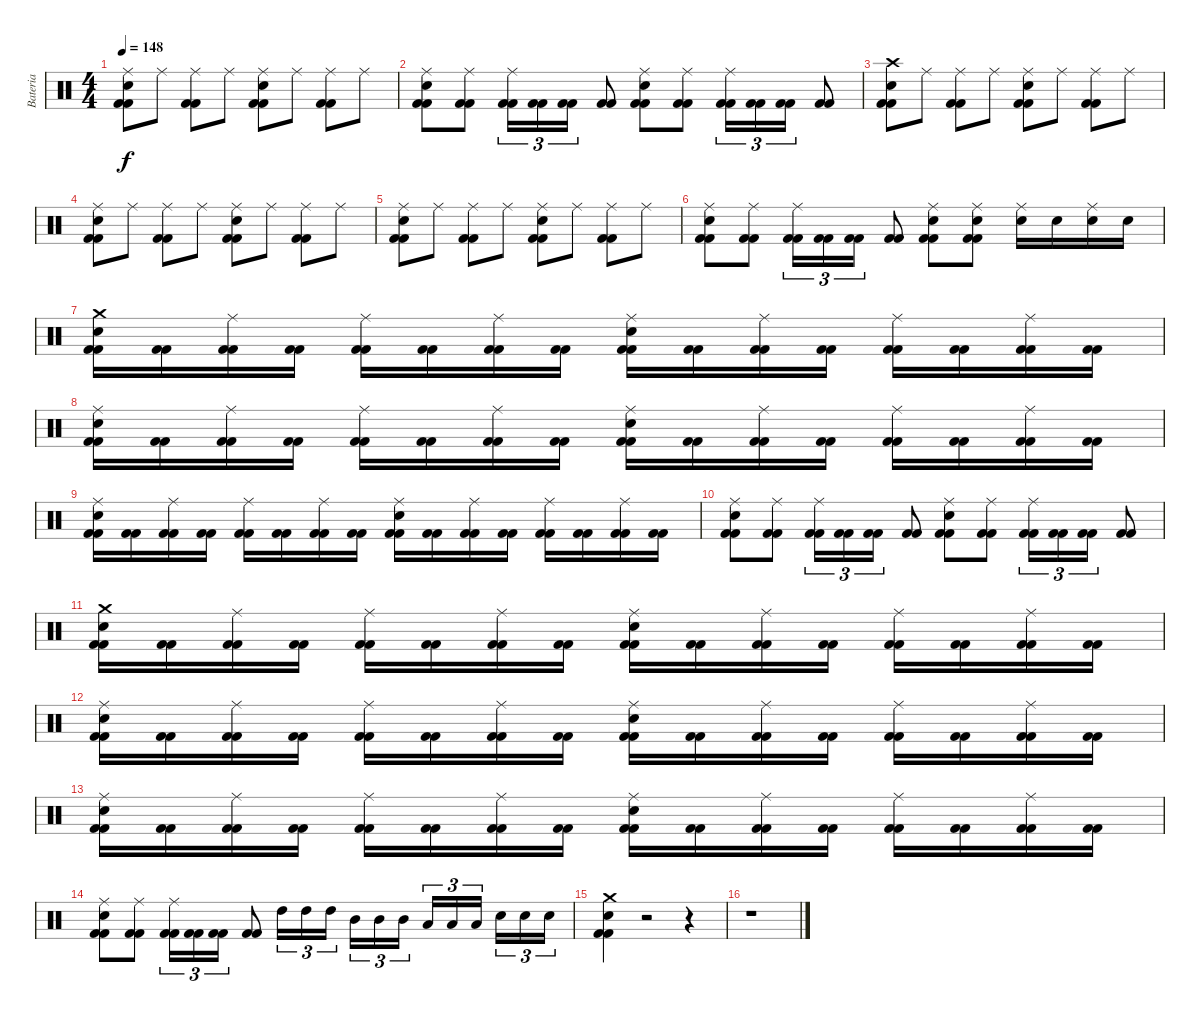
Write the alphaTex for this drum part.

\track ("Bateria" "Bateria") {instrument percussion}
\staff {score}
\articulation defaults
\ts (4 4)
\tempo 148
\clef neutral
\ks c
("Kick (hit) 2" "Kick (hit) 2" "Snare (hit) 2" "Ride (middle)").8{dy f} "Ride (middle)".8 ("Kick (hit) 2" "Kick (hit) 2" "Ride (middle)").8 "Ride (middle)".8 ("Kick (hit) 2" "Kick (hit) 2" "Snare (hit) 2" "Ride (middle)").8 "Ride (middle)".8 ("Kick (hit) 2" "Kick (hit) 2" "Ride (middle)").8 "Ride (middle)".8 |
("Kick (hit) 2" "Kick (hit) 2" "Snare (hit) 2" "Ride (middle)").8 ("Kick (hit) 2" "Kick (hit) 2" "Ride (middle)").8 ("Kick (hit) 2" "Kick (hit) 2" "Ride (middle)").16{tu (3 2)} ("Kick (hit) 2" "Kick (hit) 2").16{tu (3 2)} ("Kick (hit) 2" "Kick (hit) 2").16{tu (3 2)} ("Kick (hit) 2" "Kick (hit) 2").8 ("Kick (hit) 2" "Kick (hit) 2" "Snare (hit) 2" "Ride (middle)").8 ("Kick (hit) 2" "Kick (hit) 2" "Ride (middle)").8 ("Kick (hit) 2" "Kick (hit) 2" "Ride (middle)").16{tu (3 2)} ("Kick (hit) 2" "Kick (hit) 2").16{tu (3 2)} ("Kick (hit) 2" "Kick (hit) 2").16{tu (3 2)} ("Kick (hit) 2" "Kick (hit) 2").8 |
("Kick (hit) 2" "Kick (hit) 2" "Snare (hit) 2" "Crash high (hit)").8 "Ride (middle)".8 ("Kick (hit) 2" "Kick (hit) 2" "Ride (middle)").8 "Ride (middle)".8 ("Kick (hit) 2" "Kick (hit) 2" "Snare (hit) 2" "Ride (middle)").8 "Ride (middle)".8 ("Kick (hit) 2" "Kick (hit) 2" "Ride (middle)").8 "Ride (middle)".8 |
("Kick (hit) 2" "Kick (hit) 2" "Snare (hit) 2" "Ride (middle)").8 "Ride (middle)".8 ("Kick (hit) 2" "Kick (hit) 2" "Ride (middle)").8 "Ride (middle)".8 ("Kick (hit) 2" "Kick (hit) 2" "Snare (hit) 2" "Ride (middle)").8 "Ride (middle)".8 ("Kick (hit) 2" "Kick (hit) 2" "Ride (middle)").8 "Ride (middle)".8 |
("Kick (hit) 2" "Kick (hit) 2" "Snare (hit) 2" "Ride (middle)").8 "Ride (middle)".8 ("Kick (hit) 2" "Kick (hit) 2" "Ride (middle)").8 "Ride (middle)".8 ("Kick (hit) 2" "Kick (hit) 2" "Snare (hit) 2" "Ride (middle)").8 "Ride (middle)".8 ("Kick (hit) 2" "Kick (hit) 2" "Ride (middle)").8 "Ride (middle)".8 |
("Kick (hit) 2" "Kick (hit) 2" "Snare (hit) 2" "Ride (middle)").8 ("Kick (hit) 2" "Kick (hit) 2" "Ride (middle)").8 ("Kick (hit) 2" "Kick (hit) 2" "Ride (middle)").16{tu (3 2)} ("Kick (hit) 2" "Kick (hit) 2").16{tu (3 2)} ("Kick (hit) 2" "Kick (hit) 2").16{tu (3 2)} ("Kick (hit) 2" "Kick (hit) 2").8 ("Kick (hit) 2" "Kick (hit) 2" "Snare (hit) 2" "Ride (middle)").8 ("Kick (hit) 2" "Kick (hit) 2" "Snare (hit) 2" "Ride (middle)").8 ("Snare (hit) 2" "Ride (middle)").16 "Snare (hit) 2".16 ("Snare (hit) 2" "Ride (middle)").16 "Snare (hit) 2".16 |
("Kick (hit) 2" "Kick (hit) 2" "Snare (hit) 2" "Crash medium (hit)").16 ("Kick (hit) 2" "Kick (hit) 2").16 ("Kick (hit) 2" "Kick (hit) 2" "Ride (middle)").16 ("Kick (hit) 2" "Kick (hit) 2").16 ("Kick (hit) 2" "Kick (hit) 2" "Ride (middle)").16 ("Kick (hit) 2" "Kick (hit) 2").16 ("Kick (hit) 2" "Kick (hit) 2" "Ride (middle)").16 ("Kick (hit) 2" "Kick (hit) 2").16 ("Kick (hit) 2" "Kick (hit) 2" "Snare (hit) 2" "Ride (middle)").16 ("Kick (hit) 2" "Kick (hit) 2").16 ("Kick (hit) 2" "Kick (hit) 2" "Ride (middle)").16 ("Kick (hit) 2" "Kick (hit) 2").16 ("Kick (hit) 2" "Kick (hit) 2" "Ride (middle)").16 ("Kick (hit) 2" "Kick (hit) 2").16 ("Kick (hit) 2" "Kick (hit) 2" "Ride (middle)").16 ("Kick (hit) 2" "Kick (hit) 2").16 |
("Kick (hit) 2" "Kick (hit) 2" "Snare (hit) 2" "Ride (middle)").16 ("Kick (hit) 2" "Kick (hit) 2").16 ("Kick (hit) 2" "Kick (hit) 2" "Ride (middle)").16 ("Kick (hit) 2" "Kick (hit) 2").16 ("Kick (hit) 2" "Kick (hit) 2" "Ride (middle)").16 ("Kick (hit) 2" "Kick (hit) 2").16 ("Kick (hit) 2" "Kick (hit) 2" "Ride (middle)").16 ("Kick (hit) 2" "Kick (hit) 2").16 ("Kick (hit) 2" "Kick (hit) 2" "Snare (hit) 2" "Ride (middle)").16 ("Kick (hit) 2" "Kick (hit) 2").16 ("Kick (hit) 2" "Kick (hit) 2" "Ride (middle)").16 ("Kick (hit) 2" "Kick (hit) 2").16 ("Kick (hit) 2" "Kick (hit) 2" "Ride (middle)").16 ("Kick (hit) 2" "Kick (hit) 2").16 ("Kick (hit) 2" "Kick (hit) 2" "Ride (middle)").16 ("Kick (hit) 2" "Kick (hit) 2").16 |
("Kick (hit) 2" "Kick (hit) 2" "Snare (hit) 2" "Ride (middle)").16 ("Kick (hit) 2" "Kick (hit) 2").16 ("Kick (hit) 2" "Kick (hit) 2" "Ride (middle)").16 ("Kick (hit) 2" "Kick (hit) 2").16 ("Kick (hit) 2" "Kick (hit) 2" "Ride (middle)").16 ("Kick (hit) 2" "Kick (hit) 2").16 ("Kick (hit) 2" "Kick (hit) 2" "Ride (middle)").16 ("Kick (hit) 2" "Kick (hit) 2").16 ("Kick (hit) 2" "Kick (hit) 2" "Snare (hit) 2" "Ride (middle)").16 ("Kick (hit) 2" "Kick (hit) 2").16 ("Kick (hit) 2" "Kick (hit) 2" "Ride (middle)").16 ("Kick (hit) 2" "Kick (hit) 2").16 ("Kick (hit) 2" "Kick (hit) 2" "Ride (middle)").16 ("Kick (hit) 2" "Kick (hit) 2").16 ("Kick (hit) 2" "Kick (hit) 2" "Ride (middle)").16 ("Kick (hit) 2" "Kick (hit) 2").16 |
("Kick (hit) 2" "Kick (hit) 2" "Snare (hit) 2" "Ride (middle)").8 ("Kick (hit) 2" "Kick (hit) 2" "Ride (middle)").8 ("Kick (hit) 2" "Kick (hit) 2" "Ride (middle)").16{tu (3 2)} ("Kick (hit) 2" "Kick (hit) 2").16{tu (3 2)} ("Kick (hit) 2" "Kick (hit) 2").16{tu (3 2)} ("Kick (hit) 2" "Kick (hit) 2").8 ("Kick (hit) 2" "Kick (hit) 2" "Snare (hit) 2" "Ride (middle)").8 ("Kick (hit) 2" "Kick (hit) 2" "Ride (middle)").8 ("Kick (hit) 2" "Kick (hit) 2" "Ride (middle)").16{tu (3 2)} ("Kick (hit) 2" "Kick (hit) 2").16{tu (3 2)} ("Kick (hit) 2" "Kick (hit) 2").16{tu (3 2)} ("Kick (hit) 2" "Kick (hit) 2").8 |
("Kick (hit) 2" "Kick (hit) 2" "Snare (hit) 2" "Crash medium (hit)").16 ("Kick (hit) 2" "Kick (hit) 2").16 ("Kick (hit) 2" "Kick (hit) 2" "Ride (middle)").16 ("Kick (hit) 2" "Kick (hit) 2").16 ("Kick (hit) 2" "Kick (hit) 2" "Ride (middle)").16 ("Kick (hit) 2" "Kick (hit) 2").16 ("Kick (hit) 2" "Kick (hit) 2" "Ride (middle)").16 ("Kick (hit) 2" "Kick (hit) 2").16 ("Kick (hit) 2" "Kick (hit) 2" "Snare (hit) 2" "Ride (middle)").16 ("Kick (hit) 2" "Kick (hit) 2").16 ("Kick (hit) 2" "Kick (hit) 2" "Ride (middle)").16 ("Kick (hit) 2" "Kick (hit) 2").16 ("Kick (hit) 2" "Kick (hit) 2" "Ride (middle)").16 ("Kick (hit) 2" "Kick (hit) 2").16 ("Kick (hit) 2" "Kick (hit) 2" "Ride (middle)").16 ("Kick (hit) 2" "Kick (hit) 2").16 |
("Kick (hit) 2" "Kick (hit) 2" "Snare (hit) 2" "Ride (middle)").16 ("Kick (hit) 2" "Kick (hit) 2").16 ("Kick (hit) 2" "Kick (hit) 2" "Ride (middle)").16 ("Kick (hit) 2" "Kick (hit) 2").16 ("Kick (hit) 2" "Kick (hit) 2" "Ride (middle)").16 ("Kick (hit) 2" "Kick (hit) 2").16 ("Kick (hit) 2" "Kick (hit) 2" "Ride (middle)").16 ("Kick (hit) 2" "Kick (hit) 2").16 ("Kick (hit) 2" "Kick (hit) 2" "Snare (hit) 2" "Ride (middle)").16 ("Kick (hit) 2" "Kick (hit) 2").16 ("Kick (hit) 2" "Kick (hit) 2" "Ride (middle)").16 ("Kick (hit) 2" "Kick (hit) 2").16 ("Kick (hit) 2" "Kick (hit) 2" "Ride (middle)").16 ("Kick (hit) 2" "Kick (hit) 2").16 ("Kick (hit) 2" "Kick (hit) 2" "Ride (middle)").16 ("Kick (hit) 2" "Kick (hit) 2").16 |
("Kick (hit) 2" "Kick (hit) 2" "Snare (hit) 2" "Ride (middle)").16 ("Kick (hit) 2" "Kick (hit) 2").16 ("Kick (hit) 2" "Kick (hit) 2" "Ride (middle)").16 ("Kick (hit) 2" "Kick (hit) 2").16 ("Kick (hit) 2" "Kick (hit) 2" "Ride (middle)").16 ("Kick (hit) 2" "Kick (hit) 2").16 ("Kick (hit) 2" "Kick (hit) 2" "Ride (middle)").16 ("Kick (hit) 2" "Kick (hit) 2").16 ("Kick (hit) 2" "Kick (hit) 2" "Snare (hit) 2" "Ride (middle)").16 ("Kick (hit) 2" "Kick (hit) 2").16 ("Kick (hit) 2" "Kick (hit) 2" "Ride (middle)").16 ("Kick (hit) 2" "Kick (hit) 2").16 ("Kick (hit) 2" "Kick (hit) 2" "Ride (middle)").16 ("Kick (hit) 2" "Kick (hit) 2").16 ("Kick (hit) 2" "Kick (hit) 2" "Ride (middle)").16 ("Kick (hit) 2" "Kick (hit) 2").16 |
("Kick (hit) 2" "Kick (hit) 2" "Snare (hit) 2" "Ride (middle)").8 ("Kick (hit) 2" "Kick (hit) 2" "Ride (middle)").8 ("Kick (hit) 2" "Kick (hit) 2" "Ride (middle)").16{tu (3 2)} ("Kick (hit) 2" "Kick (hit) 2").16{tu (3 2)} ("Kick (hit) 2" "Kick (hit) 2").16{tu (3 2)} ("Kick (hit) 2" "Kick (hit) 2").8 "High Tom (hit)".16{tu (3 2)} "High Tom (hit)".16{tu (3 2)} "High Tom (hit)".16{tu (3 2)} "Mid Tom (hit)".16{tu (3 2)} "Mid Tom (hit)".16{tu (3 2)} "Mid Tom (hit)".16{tu (3 2)} "Low Tom (hit)".16{tu (3 2)} "Low Tom (hit)".16{tu (3 2)} "Low Tom (hit)".16{tu (3 2)} "Snare (hit) 2".16{tu (3 2)} "Snare (hit) 2".16{tu (3 2)} "Snare (hit) 2".16{tu (3 2)} |
("Kick (hit) 2" "Kick (hit) 2" "Snare (hit) 2" "Crash medium (hit)").4 r.2 r.4 |
r.1
